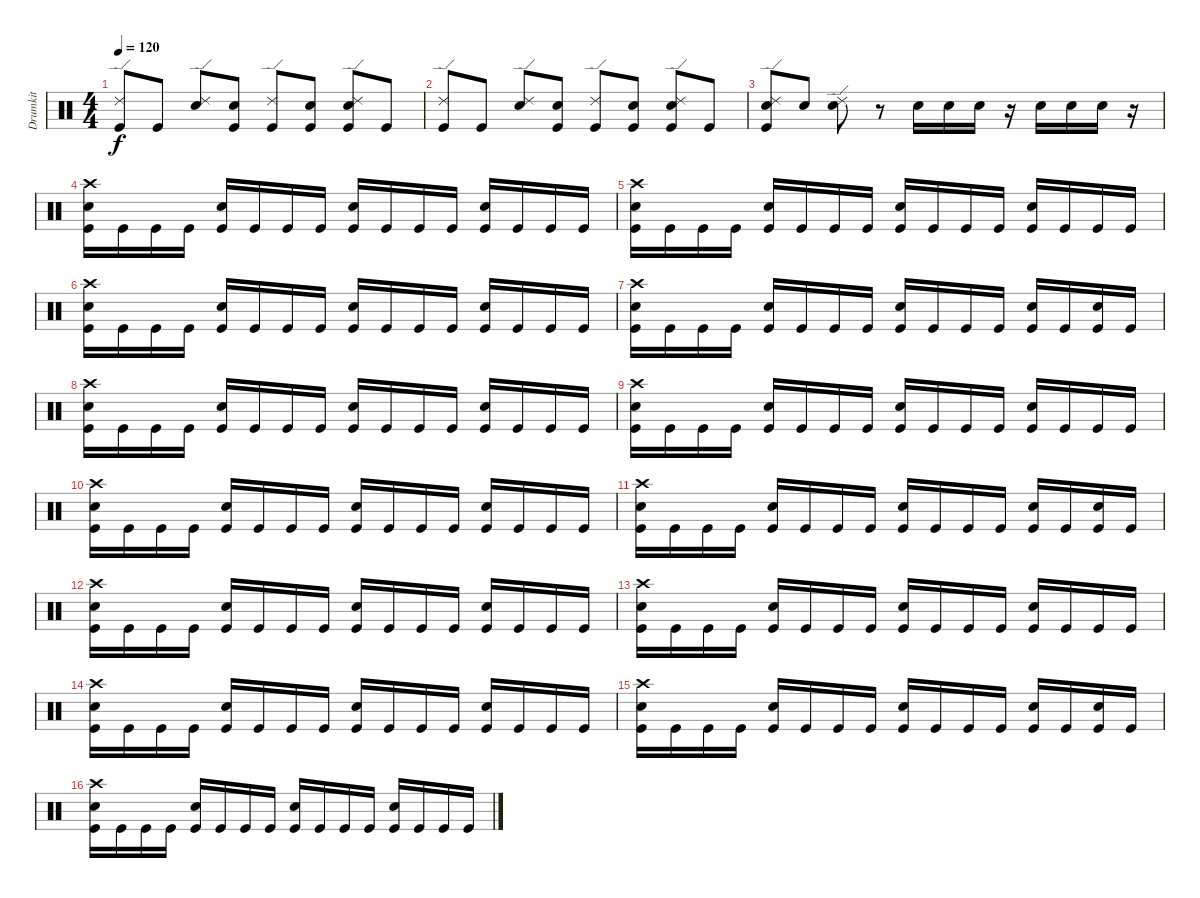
\track ("Drumkit" "Drumkit") {instrument percussion}
\staff {score}
\articulation defaults
\ts (4 4)
\tempo 120
\clef neutral
\ks c
("Kick (hit)" "Ride (edge) 2").8{dy f} "Kick (hit)".8 ("Snare (hit) 2" "Ride (edge) 2").8 ("Kick (hit)" "Snare (hit) 2").8 ("Kick (hit)" "Ride (edge) 2").8 ("Kick (hit)" "Snare (hit) 2").8 ("Snare (hit) 2" "Ride (edge) 2" "Kick (hit)").8 "Kick (hit)".8 |
("Kick (hit)" "Ride (edge) 2").8 "Kick (hit)".8 ("Snare (hit) 2" "Ride (edge) 2").8 ("Kick (hit)" "Snare (hit) 2").8 ("Kick (hit)" "Ride (edge) 2").8 ("Kick (hit)" "Snare (hit) 2").8 ("Snare (hit) 2" "Ride (edge) 2" "Kick (hit)").8 "Kick (hit)".8 |
("Snare (hit) 2" "Kick (hit)" "Ride (edge) 2").8 "Snare (hit) 2".8 ("Snare (hit) 2" "Ride (edge) 2").8 r.8 "Snare (hit) 2".16 "Snare (hit) 2".16 "Snare (hit) 2".16 r.16 "Snare (hit) 2".16 "Snare (hit) 2".16 "Snare (hit) 2".16 r.16 |
("Kick (hit)" "Snare (hit) 2" "Crash high (hit)").16 "Kick (hit)".16 "Kick (hit)".16 "Kick (hit)".16 ("Kick (hit)" "Snare (hit) 2").16 "Kick (hit)".16 "Kick (hit)".16 "Kick (hit)".16 ("Kick (hit)" "Snare (hit) 2").16 "Kick (hit)".16 "Kick (hit)".16 "Kick (hit)".16 ("Kick (hit)" "Snare (hit) 2").16 "Kick (hit)".16 "Kick (hit)".16 "Kick (hit)".16 |
("Kick (hit)" "Snare (hit) 2" "Crash high (hit)").16 "Kick (hit)".16 "Kick (hit)".16 "Kick (hit)".16 ("Kick (hit)" "Snare (hit) 2").16 "Kick (hit)".16 "Kick (hit)".16 "Kick (hit)".16 ("Kick (hit)" "Snare (hit) 2").16 "Kick (hit)".16 "Kick (hit)".16 "Kick (hit)".16 ("Kick (hit)" "Snare (hit) 2").16 "Kick (hit)".16 "Kick (hit)".16 "Kick (hit)".16 |
("Kick (hit)" "Snare (hit) 2" "Crash high (hit)").16 "Kick (hit)".16 "Kick (hit)".16 "Kick (hit)".16 ("Kick (hit)" "Snare (hit) 2").16 "Kick (hit)".16 "Kick (hit)".16 "Kick (hit)".16 ("Kick (hit)" "Snare (hit) 2").16 "Kick (hit)".16 "Kick (hit)".16 "Kick (hit)".16 ("Kick (hit)" "Snare (hit) 2").16 "Kick (hit)".16 "Kick (hit)".16 "Kick (hit)".16 |
("Kick (hit)" "Snare (hit) 2" "Crash high (hit)").16 "Kick (hit)".16 "Kick (hit)".16 "Kick (hit)".16 ("Kick (hit)" "Snare (hit) 2").16 "Kick (hit)".16 "Kick (hit)".16 "Kick (hit)".16 ("Kick (hit)" "Snare (hit) 2").16 "Kick (hit)".16 "Kick (hit)".16 "Kick (hit)".16 ("Kick (hit)" "Snare (hit) 2").16 "Kick (hit)".16 ("Kick (hit)" "Snare (hit) 2").16 "Kick (hit)".16 |
("Kick (hit)" "Snare (hit) 2" "Crash high (hit)").16 "Kick (hit)".16 "Kick (hit)".16 "Kick (hit)".16 ("Kick (hit)" "Snare (hit) 2").16 "Kick (hit)".16 "Kick (hit)".16 "Kick (hit)".16 ("Kick (hit)" "Snare (hit) 2").16 "Kick (hit)".16 "Kick (hit)".16 "Kick (hit)".16 ("Kick (hit)" "Snare (hit) 2").16 "Kick (hit)".16 "Kick (hit)".16 "Kick (hit)".16 |
("Kick (hit)" "Snare (hit) 2" "Crash high (hit)").16 "Kick (hit)".16 "Kick (hit)".16 "Kick (hit)".16 ("Kick (hit)" "Snare (hit) 2").16 "Kick (hit)".16 "Kick (hit)".16 "Kick (hit)".16 ("Kick (hit)" "Snare (hit) 2").16 "Kick (hit)".16 "Kick (hit)".16 "Kick (hit)".16 ("Kick (hit)" "Snare (hit) 2").16 "Kick (hit)".16 "Kick (hit)".16 "Kick (hit)".16 |
("Kick (hit)" "Snare (hit) 2" "Crash high (hit)").16 "Kick (hit)".16 "Kick (hit)".16 "Kick (hit)".16 ("Kick (hit)" "Snare (hit) 2").16 "Kick (hit)".16 "Kick (hit)".16 "Kick (hit)".16 ("Kick (hit)" "Snare (hit) 2").16 "Kick (hit)".16 "Kick (hit)".16 "Kick (hit)".16 ("Kick (hit)" "Snare (hit) 2").16 "Kick (hit)".16 "Kick (hit)".16 "Kick (hit)".16 |
("Kick (hit)" "Snare (hit) 2" "Crash high (hit)").16 "Kick (hit)".16 "Kick (hit)".16 "Kick (hit)".16 ("Kick (hit)" "Snare (hit) 2").16 "Kick (hit)".16 "Kick (hit)".16 "Kick (hit)".16 ("Kick (hit)" "Snare (hit) 2").16 "Kick (hit)".16 "Kick (hit)".16 "Kick (hit)".16 ("Kick (hit)" "Snare (hit) 2").16 "Kick (hit)".16 ("Kick (hit)" "Snare (hit) 2").16 "Kick (hit)".16 |
("Kick (hit)" "Snare (hit) 2" "Crash high (hit)").16 "Kick (hit)".16 "Kick (hit)".16 "Kick (hit)".16 ("Kick (hit)" "Snare (hit) 2").16 "Kick (hit)".16 "Kick (hit)".16 "Kick (hit)".16 ("Kick (hit)" "Snare (hit) 2").16 "Kick (hit)".16 "Kick (hit)".16 "Kick (hit)".16 ("Kick (hit)" "Snare (hit) 2").16 "Kick (hit)".16 "Kick (hit)".16 "Kick (hit)".16 |
("Kick (hit)" "Snare (hit) 2" "Crash high (hit)").16 "Kick (hit)".16 "Kick (hit)".16 "Kick (hit)".16 ("Kick (hit)" "Snare (hit) 2").16 "Kick (hit)".16 "Kick (hit)".16 "Kick (hit)".16 ("Kick (hit)" "Snare (hit) 2").16 "Kick (hit)".16 "Kick (hit)".16 "Kick (hit)".16 ("Kick (hit)" "Snare (hit) 2").16 "Kick (hit)".16 "Kick (hit)".16 "Kick (hit)".16 |
("Kick (hit)" "Snare (hit) 2" "Crash high (hit)").16 "Kick (hit)".16 "Kick (hit)".16 "Kick (hit)".16 ("Kick (hit)" "Snare (hit) 2").16 "Kick (hit)".16 "Kick (hit)".16 "Kick (hit)".16 ("Kick (hit)" "Snare (hit) 2").16 "Kick (hit)".16 "Kick (hit)".16 "Kick (hit)".16 ("Kick (hit)" "Snare (hit) 2").16 "Kick (hit)".16 "Kick (hit)".16 "Kick (hit)".16 |
("Kick (hit)" "Snare (hit) 2" "Crash high (hit)").16 "Kick (hit)".16 "Kick (hit)".16 "Kick (hit)".16 ("Kick (hit)" "Snare (hit) 2").16 "Kick (hit)".16 "Kick (hit)".16 "Kick (hit)".16 ("Kick (hit)" "Snare (hit) 2").16 "Kick (hit)".16 "Kick (hit)".16 "Kick (hit)".16 ("Kick (hit)" "Snare (hit) 2").16 "Kick (hit)".16 ("Kick (hit)" "Snare (hit) 2").16 "Kick (hit)".16 |
("Kick (hit)" "Snare (hit) 2" "Crash high (hit)").16 "Kick (hit)".16 "Kick (hit)".16 "Kick (hit)".16 ("Kick (hit)" "Snare (hit) 2").16 "Kick (hit)".16 "Kick (hit)".16 "Kick (hit)".16 ("Kick (hit)" "Snare (hit) 2").16 "Kick (hit)".16 "Kick (hit)".16 "Kick (hit)".16 ("Kick (hit)" "Snare (hit) 2").16 "Kick (hit)".16 "Kick (hit)".16 "Kick (hit)".16
